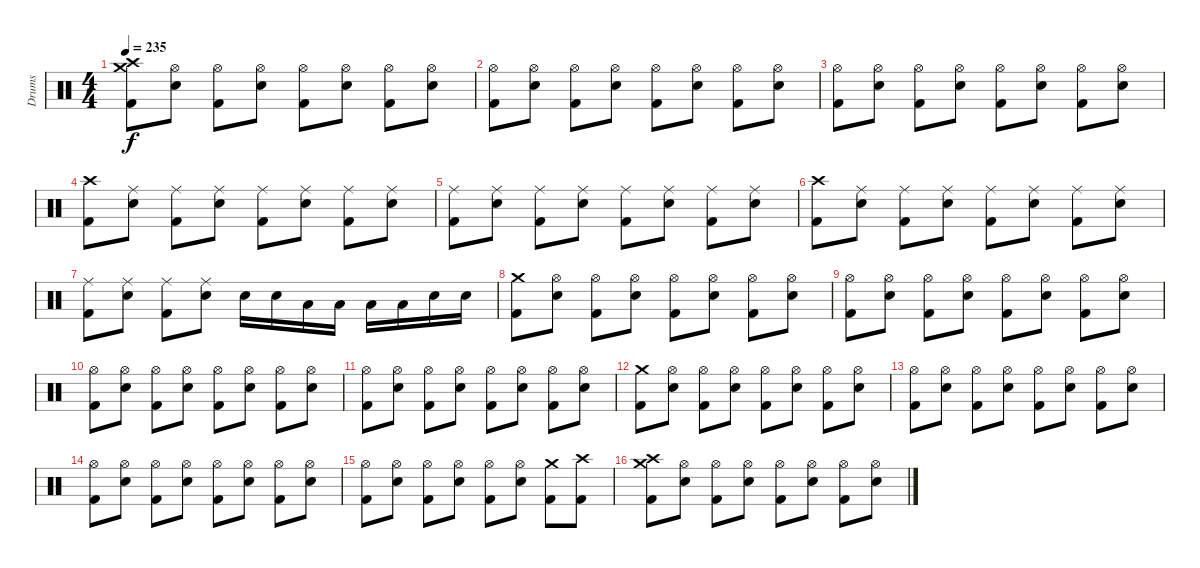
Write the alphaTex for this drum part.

\track ("Drums" "Drums") {instrument percussion}
\staff {score}
\articulation defaults
\ts (4 4)
\tempo 235
\clef neutral
\ks c
("Kick (hit) 2" "Crash medium (hit)" "Crash high (hit)").8{dy f} ("Hi-Hat (open)" "Electric Snare (hit)").8 ("Hi-Hat (open)" "Kick (hit) 2").8 ("Hi-Hat (open)" "Electric Snare (hit)").8 ("Hi-Hat (open)" "Kick (hit) 2").8 ("Hi-Hat (open)" "Electric Snare (hit)").8 ("Hi-Hat (open)" "Kick (hit) 2").8 ("Hi-Hat (open)" "Electric Snare (hit)").8 |
("Kick (hit) 2" "Hi-Hat (open)").8 ("Hi-Hat (open)" "Electric Snare (hit)").8 ("Hi-Hat (open)" "Kick (hit) 2").8 ("Hi-Hat (open)" "Electric Snare (hit)").8 ("Hi-Hat (open)" "Kick (hit) 2").8 ("Hi-Hat (open)" "Electric Snare (hit)").8 ("Hi-Hat (open)" "Kick (hit) 2").8 ("Hi-Hat (open)" "Electric Snare (hit)").8 |
("Kick (hit) 2" "Hi-Hat (open)").8 ("Hi-Hat (open)" "Electric Snare (hit)").8 ("Hi-Hat (open)" "Kick (hit) 2").8 ("Hi-Hat (open)" "Electric Snare (hit)").8 ("Hi-Hat (open)" "Kick (hit) 2").8 ("Hi-Hat (open)" "Electric Snare (hit)").8 ("Hi-Hat (open)" "Kick (hit) 2").8 ("Hi-Hat (open)" "Electric Snare (hit)").8 |
("Crash high (hit)" "Kick (hit) 2").8 ("Electric Snare (hit)" "Ride (middle)").8 ("Kick (hit) 2" "Ride (middle)").8 ("Electric Snare (hit)" "Ride (middle)").8 ("Kick (hit) 2" "Ride (middle)").8 ("Electric Snare (hit)" "Ride (middle)").8 ("Kick (hit) 2" "Ride (middle)").8 ("Electric Snare (hit)" "Ride (middle)").8 |
("Ride (middle)" "Kick (hit) 2").8 ("Electric Snare (hit)" "Ride (middle)").8 ("Kick (hit) 2" "Ride (middle)").8 ("Electric Snare (hit)" "Ride (middle)").8 ("Kick (hit) 2" "Ride (middle)").8 ("Electric Snare (hit)" "Ride (middle)").8 ("Kick (hit) 2" "Ride (middle)").8 ("Electric Snare (hit)" "Ride (middle)").8 |
("Crash high (hit)" "Kick (hit) 2").8 ("Electric Snare (hit)" "Ride (middle)").8 ("Kick (hit) 2" "Ride (middle)").8 ("Electric Snare (hit)" "Ride (middle)").8 ("Kick (hit) 2" "Ride (middle)").8 ("Electric Snare (hit)" "Ride (middle)").8 ("Kick (hit) 2" "Ride (middle)").8 ("Electric Snare (hit)" "Ride (middle)").8 |
("Ride (middle)" "Kick (hit) 2").8 ("Electric Snare (hit)" "Ride (middle)").8 ("Kick (hit) 2" "Ride (middle)").8 ("Electric Snare (hit)" "Ride (middle)").8 "Electric Snare (hit)".16 "Electric Snare (hit)".16 "Low Tom (hit)".16 "Low Tom (hit)".16 "Low Tom (hit)".16 "Low Tom (hit)".16 "Electric Snare (hit)".16 "Electric Snare (hit)".16 |
("Kick (hit) 2" "Crash medium (hit)").8 ("Hi-Hat (open)" "Electric Snare (hit)").8 ("Hi-Hat (open)" "Kick (hit) 2").8 ("Hi-Hat (open)" "Electric Snare (hit)").8 ("Hi-Hat (open)" "Kick (hit) 2").8 ("Hi-Hat (open)" "Electric Snare (hit)").8 ("Hi-Hat (open)" "Kick (hit) 2").8 ("Hi-Hat (open)" "Electric Snare (hit)").8 |
("Kick (hit) 2" "Hi-Hat (open)").8 ("Hi-Hat (open)" "Electric Snare (hit)").8 ("Hi-Hat (open)" "Kick (hit) 2").8 ("Hi-Hat (open)" "Electric Snare (hit)").8 ("Hi-Hat (open)" "Kick (hit) 2").8 ("Hi-Hat (open)" "Electric Snare (hit)").8 ("Hi-Hat (open)" "Kick (hit) 2").8 ("Hi-Hat (open)" "Electric Snare (hit)").8 |
("Kick (hit) 2" "Hi-Hat (open)").8 ("Hi-Hat (open)" "Electric Snare (hit)").8 ("Hi-Hat (open)" "Kick (hit) 2").8 ("Hi-Hat (open)" "Electric Snare (hit)").8 ("Hi-Hat (open)" "Kick (hit) 2").8 ("Hi-Hat (open)" "Electric Snare (hit)").8 ("Hi-Hat (open)" "Kick (hit) 2").8 ("Hi-Hat (open)" "Electric Snare (hit)").8 |
("Kick (hit) 2" "Hi-Hat (open)").8 ("Hi-Hat (open)" "Electric Snare (hit)").8 ("Hi-Hat (open)" "Kick (hit) 2").8 ("Hi-Hat (open)" "Electric Snare (hit)").8 ("Hi-Hat (open)" "Kick (hit) 2").8 ("Hi-Hat (open)" "Electric Snare (hit)").8 ("Hi-Hat (open)" "Kick (hit) 2").8 ("Hi-Hat (open)" "Electric Snare (hit)").8 |
("Kick (hit) 2" "Crash medium (hit)").8 ("Hi-Hat (open)" "Electric Snare (hit)").8 ("Hi-Hat (open)" "Kick (hit) 2").8 ("Hi-Hat (open)" "Electric Snare (hit)").8 ("Hi-Hat (open)" "Kick (hit) 2").8 ("Hi-Hat (open)" "Electric Snare (hit)").8 ("Hi-Hat (open)" "Kick (hit) 2").8 ("Hi-Hat (open)" "Electric Snare (hit)").8 |
("Kick (hit) 2" "Hi-Hat (open)").8 ("Hi-Hat (open)" "Electric Snare (hit)").8 ("Hi-Hat (open)" "Kick (hit) 2").8 ("Hi-Hat (open)" "Electric Snare (hit)").8 ("Hi-Hat (open)" "Kick (hit) 2").8 ("Hi-Hat (open)" "Electric Snare (hit)").8 ("Hi-Hat (open)" "Kick (hit) 2").8 ("Hi-Hat (open)" "Electric Snare (hit)").8 |
("Kick (hit) 2" "Hi-Hat (open)").8 ("Hi-Hat (open)" "Electric Snare (hit)").8 ("Hi-Hat (open)" "Kick (hit) 2").8 ("Hi-Hat (open)" "Electric Snare (hit)").8 ("Hi-Hat (open)" "Kick (hit) 2").8 ("Hi-Hat (open)" "Electric Snare (hit)").8 ("Hi-Hat (open)" "Kick (hit) 2").8 ("Hi-Hat (open)" "Electric Snare (hit)").8 |
("Kick (hit) 2" "Hi-Hat (open)").8 ("Hi-Hat (open)" "Electric Snare (hit)").8 ("Hi-Hat (open)" "Kick (hit) 2").8 ("Hi-Hat (open)" "Electric Snare (hit)").8 ("Hi-Hat (open)" "Kick (hit) 2").8 ("Hi-Hat (open)" "Electric Snare (hit)").8 ("Crash medium (hit)" "Kick (hit) 2").8 ("Kick (hit) 2" "Crash high (hit)").8 |
("Kick (hit) 2" "Crash medium (hit)" "Crash high (hit)").8 ("Hi-Hat (open)" "Electric Snare (hit)").8 ("Hi-Hat (open)" "Kick (hit) 2").8 ("Hi-Hat (open)" "Electric Snare (hit)").8 ("Hi-Hat (open)" "Kick (hit) 2").8 ("Hi-Hat (open)" "Electric Snare (hit)").8 ("Hi-Hat (open)" "Kick (hit) 2").8 ("Hi-Hat (open)" "Electric Snare (hit)").8
